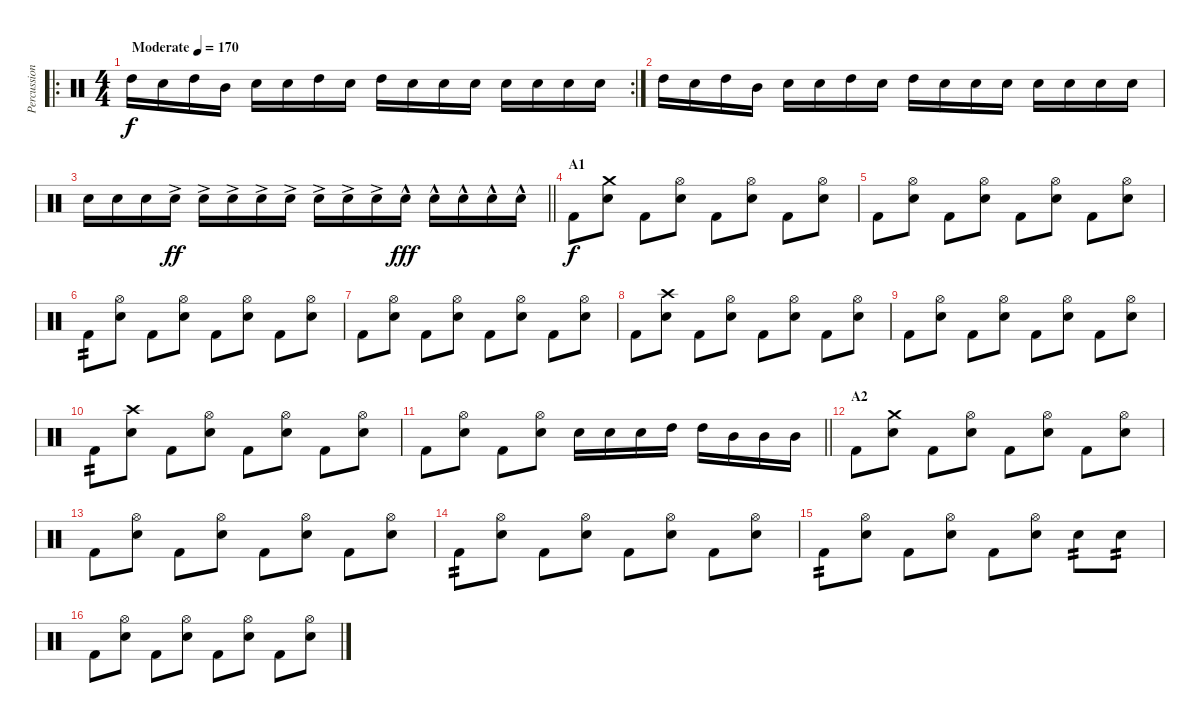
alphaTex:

\track ("Percussion" "Percussion") {instrument percussion}
\staff {score}
\articulation defaults
\ro
\rc 2
\ts (4 4)
\tempo (170 "Moderate")
\clef neutral
\ks c "High Tom (hit)".16{dy f} "Electric Snare (hit)".16 "High Tom (hit)".16 "Mid Tom (hit)".16 "Electric Snare (hit)".16 "Electric Snare (hit)".16 "High Tom (hit)".16 "Electric Snare (hit)".16 "High Tom (hit)".16 "Electric Snare (hit)".16 "Electric Snare (hit)".16 "Electric Snare (hit)".16 "Electric Snare (hit)".16 "Electric Snare (hit)".16 "Electric Snare (hit)".16 "Electric Snare (hit)".16
|
"High Tom (hit)".16 "Electric Snare (hit)".16 "High Tom (hit)".16 "Mid Tom (hit)".16 "Electric Snare (hit)".16 "Electric Snare (hit)".16 "High Tom (hit)".16 "Electric Snare (hit)".16 "High Tom (hit)".16 "Electric Snare (hit)".16 "Electric Snare (hit)".16 "Electric Snare (hit)".16 "Electric Snare (hit)".16 "Electric Snare (hit)".16 "Electric Snare (hit)".16 "Electric Snare (hit)".16 |
\barLineRight lightlight "Electric Snare (hit)".16 "Electric Snare (hit)".16 "Electric Snare (hit)".16 "Electric Snare (hit)"{ac}.16{dy ff} "Electric Snare (hit)"{ac}.16 "Electric Snare (hit)"{ac}.16 "Electric Snare (hit)"{ac}.16 "Electric Snare (hit)"{ac}.16 "Electric Snare (hit)"{ac}.16 "Electric Snare (hit)"{ac}.16 "Electric Snare (hit)"{ac}.16 "Electric Snare (hit)"{hac}.16{dy fff} "Electric Snare (hit)"{hac}.16 "Electric Snare (hit)"{hac}.16 "Electric Snare (hit)"{hac}.16 "Electric Snare (hit)"{hac}.16
|
\section ("" "A1")
"Kick (hit) 2".8{dy f} ("Crash medium (hit)" "Electric Snare (hit)").8 "Kick (hit) 2".8 ("Hi-Hat (open)" "Electric Snare (hit)").8 "Kick (hit) 2".8 ("Hi-Hat (open)" "Electric Snare (hit)").8 "Kick (hit) 2".8 ("Hi-Hat (open)" "Electric Snare (hit)").8 |
"Kick (hit) 2".8 ("Hi-Hat (open)" "Electric Snare (hit)").8 "Kick (hit) 2".8 ("Hi-Hat (open)" "Electric Snare (hit)").8 "Kick (hit) 2".8 ("Hi-Hat (open)" "Electric Snare (hit)").8 "Kick (hit) 2".8 ("Hi-Hat (open)" "Electric Snare (hit)").8 |
"Kick (hit) 2".8{tp 2} ("Hi-Hat (open)" "Electric Snare (hit)").8 "Kick (hit) 2".8 ("Hi-Hat (open)" "Electric Snare (hit)").8 "Kick (hit) 2".8 ("Hi-Hat (open)" "Electric Snare (hit)").8 "Kick (hit) 2".8 ("Hi-Hat (open)" "Electric Snare (hit)").8 |
"Kick (hit) 2".8 ("Hi-Hat (open)" "Electric Snare (hit)").8 "Kick (hit) 2".8 ("Hi-Hat (open)" "Electric Snare (hit)").8 "Kick (hit) 2".8 ("Hi-Hat (open)" "Electric Snare (hit)").8 "Kick (hit) 2".8 ("Hi-Hat (open)" "Electric Snare (hit)").8 |
"Kick (hit) 2".8 ("Crash high (hit)" "Electric Snare (hit)").8 "Kick (hit) 2".8 ("Hi-Hat (open)" "Electric Snare (hit)").8 "Kick (hit) 2".8 ("Hi-Hat (open)" "Electric Snare (hit)").8 "Kick (hit) 2".8 ("Hi-Hat (open)" "Electric Snare (hit)").8 |
"Kick (hit) 2".8 ("Hi-Hat (open)" "Electric Snare (hit)").8 "Kick (hit) 2".8 ("Hi-Hat (open)" "Electric Snare (hit)").8 "Kick (hit) 2".8 ("Hi-Hat (open)" "Electric Snare (hit)").8 "Kick (hit) 2".8 ("Hi-Hat (open)" "Electric Snare (hit)").8 |
"Kick (hit) 2".8{tp 2} ("Crash high (hit)" "Electric Snare (hit)").8 "Kick (hit) 2".8 ("Hi-Hat (open)" "Electric Snare (hit)").8 "Kick (hit) 2".8 ("Hi-Hat (open)" "Electric Snare (hit)").8 "Kick (hit) 2".8 ("Hi-Hat (open)" "Electric Snare (hit)").8 |
\barLineRight lightlight "Kick (hit) 2".8
("Hi-Hat (open)" "Electric Snare (hit)").8 "Kick (hit) 2".8 ("Hi-Hat (open)" "Electric Snare (hit)").8 "Electric Snare (hit)".16 "Electric Snare (hit)".16 "Electric Snare (hit)".16 "High Tom (hit)".16 "High Tom (hit)".16 "Mid Tom (hit)".16 "Mid Tom (hit)".16 "Mid Tom (hit)".16 |
\section ("" "A2")
"Kick (hit) 2".8 ("Crash medium (hit)" "Electric Snare (hit)").8 "Kick (hit) 2".8 ("Hi-Hat (open)" "Electric Snare (hit)").8 "Kick (hit) 2".8 ("Hi-Hat (open)" "Electric Snare (hit)").8 "Kick (hit) 2".8 ("Hi-Hat (open)" "Electric Snare (hit)").8 |
"Kick (hit) 2".8 ("Hi-Hat (open)" "Electric Snare (hit)").8 "Kick (hit) 2".8 ("Hi-Hat (open)" "Electric Snare (hit)").8 "Kick (hit) 2".8 ("Hi-Hat (open)" "Electric Snare (hit)").8 "Kick (hit) 2".8 ("Hi-Hat (open)" "Electric Snare (hit)").8 |
"Kick (hit) 2".8{tp 2} ("Hi-Hat (open)" "Electric Snare (hit)").8 "Kick (hit) 2".8 ("Hi-Hat (open)" "Electric Snare (hit)").8 "Kick (hit) 2".8 ("Hi-Hat (open)" "Electric Snare (hit)").8 "Kick (hit) 2".8 ("Hi-Hat (open)" "Electric Snare (hit)").8 |
"Kick (hit) 2".8{tp 2} ("Hi-Hat (open)" "Electric Snare (hit)").8 "Kick (hit) 2".8 ("Hi-Hat (open)" "Electric Snare (hit)").8 "Kick (hit) 2".8 ("Hi-Hat (open)" "Electric Snare (hit)").8 "Electric Snare (hit)".8{tp 2} "Electric Snare (hit)".8{tp 2} |
"Kick (hit) 2".8 ("Hi-Hat (open)" "Electric Snare (hit)").8 "Kick (hit) 2".8 ("Hi-Hat (open)" "Electric Snare (hit)").8 "Kick (hit) 2".8 ("Hi-Hat (open)" "Electric Snare (hit)").8 "Kick (hit) 2".8 ("Hi-Hat (open)" "Electric Snare (hit)").8
